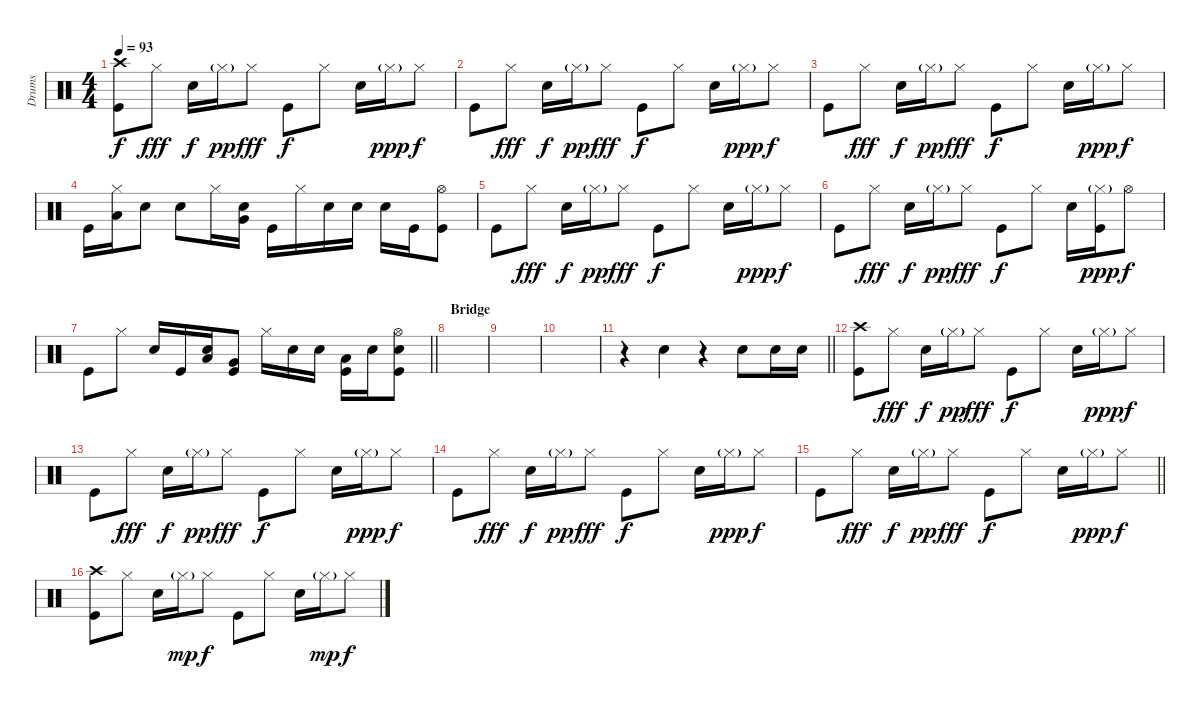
\track ("Drums" "Drums") {instrument percussion}
\staff {score}
\articulation defaults
\ts (4 4)
\tempo 93
\clef neutral
\ks c
("Crash high (hit)" "Kick (hit)").8{dy f} "Hi-Hat (closed)".8{dy fff} "Snare (hit) 2".16{dy f} "Hi-Hat (closed)"{g}.16{dy pp} "Hi-Hat (closed)".8{dy fff} "Kick (hit)".8{dy f} "Hi-Hat (closed)".8 "Snare (hit) 2".16 "Hi-Hat (closed)"{g}.16{dy ppp} "Hi-Hat (closed)".8{dy f} |
"Kick (hit)".8 "Hi-Hat (closed)".8{dy fff} "Snare (hit) 2".16{dy f} "Hi-Hat (closed)"{g}.16{dy pp} "Hi-Hat (closed)".8{dy fff} "Kick (hit)".8{dy f} "Hi-Hat (closed)".8 "Snare (hit) 2".16 "Hi-Hat (closed)"{g}.16{dy ppp} "Hi-Hat (closed)".8{dy f} |
"Kick (hit)".8 "Hi-Hat (closed)".8{dy fff} "Snare (hit) 2".16{dy f} "Hi-Hat (closed)"{g}.16{dy pp} "Hi-Hat (closed)".8{dy fff} "Kick (hit)".8{dy f} "Hi-Hat (closed)".8 "Snare (hit) 2".16 "Hi-Hat (closed)"{g}.16{dy ppp} "Hi-Hat (closed)".8{dy f} |
"Kick (hit)".16 ("Low Tom (hit)" "Hi-Hat (closed)").16 "Snare (hit) 2".8 "Snare (hit) 2".8 "Hi-Hat (closed)".16 ("Very Low Tom (hit)" "Snare (hit) 2").16 "Kick (hit)".16 "Hi-Hat (closed)".16 "Snare (hit) 2".16 "Snare (hit) 2".16 "Electric Snare (hit)".16 "Kick (hit)".16 ("Hi-Hat (open)" "Kick (hit)").8 |
"Kick (hit)".8 "Hi-Hat (closed)".8{dy fff} "Snare (hit) 2".16{dy f} "Hi-Hat (closed)"{g}.16{dy pp} "Hi-Hat (closed)".8{dy fff} "Kick (hit)".8{dy f} "Hi-Hat (closed)".8 "Snare (hit) 2".16 "Hi-Hat (closed)"{g}.16{dy ppp} "Hi-Hat (closed)".8{dy f} |
"Kick (hit)".8 "Hi-Hat (closed)".8{dy fff} "Snare (hit) 2".16{dy f} "Hi-Hat (closed)"{g}.16{dy pp} "Hi-Hat (closed)".8{dy fff} "Kick (hit)".8{dy f} "Hi-Hat (closed)".8 "Snare (hit) 2".16 ("Hi-Hat (closed)"{g} "Kick (hit)").16{dy ppp} "Hi-Hat (open)".8{dy f} |
\barLineRight lightlight "Kick (hit)".8 "Hi-Hat (closed)".8 "Snare (hit) 2".16 "Kick (hit)".16
("Low Tom (hit)" "Electric Snare (hit)").16 ("Very Low Tom (hit)" "Kick (hit)").8 "Hi-Hat (closed)".16 "Snare (hit) 2".16 "Electric Snare (hit)".16 ("Low Floor Tom (hit)" "Kick (hit)").16 "Electric Snare (hit)".16 ("Hi-Hat (open)" "Snare (hit) 2" "Kick (hit)").8 |
\section ("" "Bridge")
|
|
|
\barLineRight lightlight
r.4 "Electric Snare (hit)".4 r.4 "Electric Snare (hit)".8 "Snare (hit) 2".16 "Snare (hit) 2".16 |
\section ("" "")
("Crash high (hit)" "Kick (hit)").8 "Hi-Hat (closed)".8{dy fff} "Snare (hit) 2".16{dy f} "Hi-Hat (closed)"{g}.16{dy pp} "Hi-Hat (closed)".8{dy fff} "Kick (hit)".8{dy f} "Hi-Hat (closed)".8 "Snare (hit) 2".16 "Hi-Hat (closed)"{g}.16{dy ppp} "Hi-Hat (closed)".8{dy f} |
"Kick (hit)".8 "Hi-Hat (closed)".8{dy fff} "Snare (hit) 2".16{dy f} "Hi-Hat (closed)"{g}.16{dy pp} "Hi-Hat (closed)".8{dy fff} "Kick (hit)".8{dy f} "Hi-Hat (closed)".8 "Snare (hit) 2".16 "Hi-Hat (closed)"{g}.16{dy ppp} "Hi-Hat (closed)".8{dy f} |
"Kick (hit)".8 "Hi-Hat (closed)".8{dy fff} "Snare (hit) 2".16{dy f} "Hi-Hat (closed)"{g}.16{dy pp} "Hi-Hat (closed)".8{dy fff} "Kick (hit)".8{dy f} "Hi-Hat (closed)".8 "Snare (hit) 2".16 "Hi-Hat (closed)"{g}.16{dy ppp} "Hi-Hat (closed)".8{dy f} |
\barLineRight lightlight "Kick (hit)".8 "Hi-Hat (closed)".8{dy fff} "Snare (hit) 2".16{dy f} "Hi-Hat (closed)"{g}.16{dy pp} "Hi-Hat (closed)".8{dy fff} "Kick (hit)".8{dy f} "Hi-Hat (closed)".8 "Snare (hit) 2".16 "Hi-Hat (closed)"{g}.16{dy ppp} "Hi-Hat (closed)".8{dy f}
|
("Crash high (hit)" "Kick (hit)").8 "Hi-Hat (closed)".8 "Snare (hit) 2".16 "Hi-Hat (closed)"{g}.16{dy mp} "Hi-Hat (closed)".8{dy f} "Kick (hit)".8 "Hi-Hat (closed)".8 "Snare (hit) 2".16 "Hi-Hat (closed)"{g}.16{dy mp} "Hi-Hat (closed)".8{dy f}
